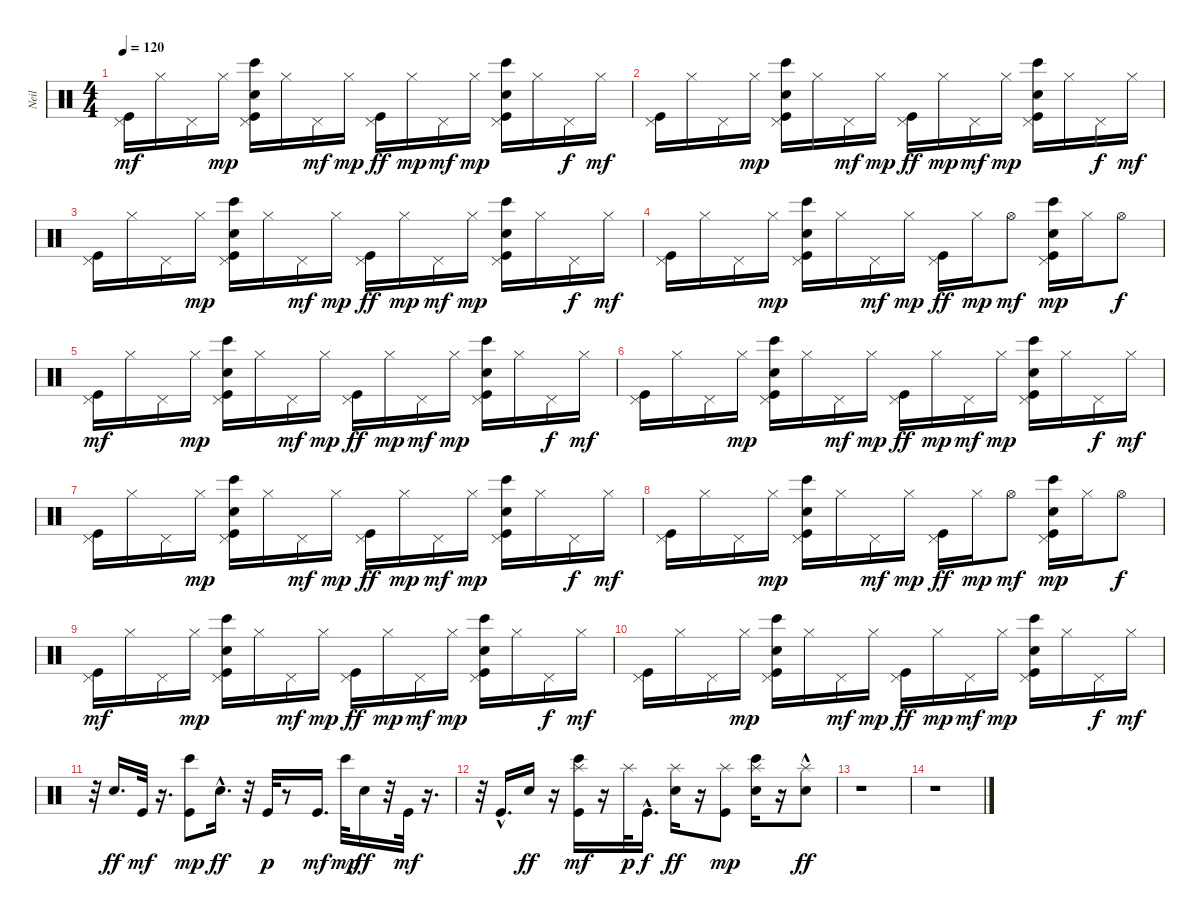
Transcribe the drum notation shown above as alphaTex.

\track ("Neil" "Neil") {instrument percussion}
\staff {score}
\articulation defaults
\ts (4 4)
\tempo 120
\clef neutral
\ks c
("Pedal Hi-Hat (hit)" "Kick (hit)").16{dy mf} "Hi-Hat (closed)".16 "Pedal Hi-Hat (hit)".16 "Hi-Hat (closed)".16{dy mp} ("Electric Snare (hit)" "Pedal Hi-Hat (hit)" "Kick (hit)" "Bongo High (hit)").16 "Hi-Hat (closed)".16 "Pedal Hi-Hat (hit)".16{dy mf} "Hi-Hat (closed)".16{dy mp} ("Pedal Hi-Hat (hit)" "Kick (hit)").16{dy ff} "Hi-Hat (closed)".16{dy mp} "Pedal Hi-Hat (hit)".16{dy mf} "Hi-Hat (closed)".16{dy mp} ("Electric Snare (hit)" "Pedal Hi-Hat (hit)" "Kick (hit)" "Bongo High (hit)").16 "Hi-Hat (closed)".16 "Pedal Hi-Hat (hit)".16{dy f} "Hi-Hat (closed)".16{dy mf} |
("Pedal Hi-Hat (hit)" "Kick (hit)").16 "Hi-Hat (closed)".16 "Pedal Hi-Hat (hit)".16 "Hi-Hat (closed)".16{dy mp} ("Electric Snare (hit)" "Pedal Hi-Hat (hit)" "Kick (hit)" "Bongo High (hit)").16{volume 11} "Hi-Hat (closed)".16 "Pedal Hi-Hat (hit)".16{dy mf} "Hi-Hat (closed)".16{dy mp} ("Pedal Hi-Hat (hit)" "Kick (hit)").16{dy ff volume 10} "Hi-Hat (closed)".16{dy mp} "Pedal Hi-Hat (hit)".16{dy mf} "Hi-Hat (closed)".16{dy mp volume 10} ("Electric Snare (hit)" "Pedal Hi-Hat (hit)" "Kick (hit)" "Bongo High (hit)").16 "Hi-Hat (closed)".16 "Pedal Hi-Hat (hit)".16{dy f volume 10} "Hi-Hat (closed)".16{dy mf} |
("Pedal Hi-Hat (hit)" "Kick (hit)").16 "Hi-Hat (closed)".16 "Pedal Hi-Hat (hit)".16{volume 10} "Hi-Hat (closed)".16{dy mp} ("Electric Snare (hit)" "Pedal Hi-Hat (hit)" "Kick (hit)" "Bongo High (hit)").16 "Hi-Hat (closed)".16 "Pedal Hi-Hat (hit)".16{dy mf} "Hi-Hat (closed)".16{dy mp} ("Pedal Hi-Hat (hit)" "Kick (hit)").16{dy ff} "Hi-Hat (closed)".16{dy mp} "Pedal Hi-Hat (hit)".16{dy mf} "Hi-Hat (closed)".16{dy mp} ("Electric Snare (hit)" "Pedal Hi-Hat (hit)" "Kick (hit)" "Bongo High (hit)").16{volume 10} "Hi-Hat (closed)".16 "Pedal Hi-Hat (hit)".16{dy f} "Hi-Hat (closed)".16{dy mf} |
("Pedal Hi-Hat (hit)" "Kick (hit)").16 "Hi-Hat (closed)".16 "Pedal Hi-Hat (hit)".16 "Hi-Hat (closed)".16{dy mp volume 10} ("Electric Snare (hit)" "Pedal Hi-Hat (hit)" "Kick (hit)" "Bongo High (hit)").16 "Hi-Hat (closed)".16{volume 10} "Pedal Hi-Hat (hit)".16{dy mf} "Hi-Hat (closed)".16{dy mp} ("Pedal Hi-Hat (hit)" "Kick (hit)").16{dy ff} "Hi-Hat (closed)".16{dy mp volume 10} "Hi-Hat (open)".8{dy mf} ("Electric Snare (hit)" "Pedal Hi-Hat (hit)" "Kick (hit)" "Bongo High (hit)").16{dy mp volume 10} "Hi-Hat (closed)".16 "Hi-Hat (open)".8{dy f} |
("Pedal Hi-Hat (hit)" "Kick (hit)").16{dy mf} "Hi-Hat (closed)".16{volume 9} "Pedal Hi-Hat (hit)".16{volume 9} "Hi-Hat (closed)".16{dy mp volume 9} ("Electric Snare (hit)" "Pedal Hi-Hat (hit)" "Kick (hit)" "Bongo High (hit)").16{volume 9} "Hi-Hat (closed)".16{volume 9} "Pedal Hi-Hat (hit)".16{dy mf volume 9} "Hi-Hat (closed)".16{dy mp} ("Pedal Hi-Hat (hit)" "Kick (hit)").16{dy ff volume 9} "Hi-Hat (closed)".16{dy mp volume 8} "Pedal Hi-Hat (hit)".16{dy mf volume 8} "Hi-Hat (closed)".16{dy mp volume 8} ("Electric Snare (hit)" "Pedal Hi-Hat (hit)" "Kick (hit)" "Bongo High (hit)").16 "Hi-Hat (closed)".16 "Pedal Hi-Hat (hit)".16{dy f volume 8} "Hi-Hat (closed)".16{dy mf volume 8} |
("Pedal Hi-Hat (hit)" "Kick (hit)").16{volume 8} "Hi-Hat (closed)".16{volume 8} "Pedal Hi-Hat (hit)".16 "Hi-Hat (closed)".16{dy mp volume 8} ("Electric Snare (hit)" "Pedal Hi-Hat (hit)" "Kick (hit)" "Bongo High (hit)").16{volume 8} "Hi-Hat (closed)".16 "Pedal Hi-Hat (hit)".16{dy mf volume 7} "Hi-Hat (closed)".16{dy mp volume 7} ("Pedal Hi-Hat (hit)" "Kick (hit)").16{dy ff volume 7} "Hi-Hat (closed)".16{dy mp} "Pedal Hi-Hat (hit)".16{dy mf} "Hi-Hat (closed)".16{dy mp volume 7} ("Electric Snare (hit)" "Pedal Hi-Hat (hit)" "Kick (hit)" "Bongo High (hit)").16{volume 7} "Hi-Hat (closed)".16{volume 7} "Pedal Hi-Hat (hit)".16{dy f} "Hi-Hat (closed)".16{dy mf volume 6} |
("Pedal Hi-Hat (hit)" "Kick (hit)").16 "Hi-Hat (closed)".16 "Pedal Hi-Hat (hit)".16{volume 6} "Hi-Hat (closed)".16{dy mp} ("Electric Snare (hit)" "Pedal Hi-Hat (hit)" "Kick (hit)" "Bongo High (hit)").16{volume 6} "Hi-Hat (closed)".16{volume 6} "Pedal Hi-Hat (hit)".16{dy mf volume 6} "Hi-Hat (closed)".16{dy mp volume 6} ("Pedal Hi-Hat (hit)" "Kick (hit)").16{dy ff} "Hi-Hat (closed)".16{dy mp volume 6} "Pedal Hi-Hat (hit)".16{dy mf} "Hi-Hat (closed)".16{dy mp volume 6} ("Electric Snare (hit)" "Pedal Hi-Hat (hit)" "Kick (hit)" "Bongo High (hit)").16 "Hi-Hat (closed)".16{volume 5} "Pedal Hi-Hat (hit)".16{dy f volume 5} "Hi-Hat (closed)".16{dy mf volume 5} |
("Pedal Hi-Hat (hit)" "Kick (hit)").16{volume 5} "Hi-Hat (closed)".16{volume 5} "Pedal Hi-Hat (hit)".16{volume 5} "Hi-Hat (closed)".16{dy mp} ("Electric Snare (hit)" "Pedal Hi-Hat (hit)" "Kick (hit)" "Bongo High (hit)").16{volume 4} "Hi-Hat (closed)".16 "Pedal Hi-Hat (hit)".16{dy mf volume 4} "Hi-Hat (closed)".16{dy mp volume 4} ("Pedal Hi-Hat (hit)" "Kick (hit)").16{dy ff volume 4} "Hi-Hat (closed)".16{dy mp volume 4} "Hi-Hat (open)".8{dy mf volume 4} ("Electric Snare (hit)" "Pedal Hi-Hat (hit)" "Kick (hit)" "Bongo High (hit)").16{dy mp volume 4} "Hi-Hat (closed)".16 "Hi-Hat (open)".8{dy f volume 3} |
("Pedal Hi-Hat (hit)" "Kick (hit)").16{dy mf volume 3} "Hi-Hat (closed)".16{volume 3} "Pedal Hi-Hat (hit)".16{volume 3} "Hi-Hat (closed)".16{dy mp volume 3} ("Electric Snare (hit)" "Pedal Hi-Hat (hit)" "Kick (hit)" "Bongo High (hit)").16{volume 3} "Hi-Hat (closed)".16 "Pedal Hi-Hat (hit)".16{dy mf volume 2} "Hi-Hat (closed)".16{dy mp volume 2} ("Pedal Hi-Hat (hit)" "Kick (hit)").16{dy ff volume 2} "Hi-Hat (closed)".16{dy mp} "Pedal Hi-Hat (hit)".16{dy mf volume 2} "Hi-Hat (closed)".16{dy mp} ("Electric Snare (hit)" "Pedal Hi-Hat (hit)" "Kick (hit)" "Bongo High (hit)").16{volume 2} "Hi-Hat (closed)".16 "Pedal Hi-Hat (hit)".16{dy f volume 2} "Hi-Hat (closed)".16{dy mf volume 2} |
("Pedal Hi-Hat (hit)" "Kick (hit)").16 "Hi-Hat (closed)".16{volume 1} "Pedal Hi-Hat (hit)".16 "Hi-Hat (closed)".16{dy mp volume 1} ("Electric Snare (hit)" "Pedal Hi-Hat (hit)" "Kick (hit)" "Bongo High (hit)").16{volume 1} "Hi-Hat (closed)".16 "Pedal Hi-Hat (hit)".16{dy mf} "Hi-Hat (closed)".16{dy mp volume 1} ("Pedal Hi-Hat (hit)" "Kick (hit)").16{dy ff} "Hi-Hat (closed)".16{dy mp volume 1} "Pedal Hi-Hat (hit)".16{dy mf volume 1} "Hi-Hat (closed)".16{dy mp} ("Electric Snare (hit)" "Pedal Hi-Hat (hit)" "Kick (hit)" "Bongo High (hit)").16 "Hi-Hat (closed)".16{volume 0} "Pedal Hi-Hat (hit)".16{dy f volume 0} "Hi-Hat (closed)".16{dy mf volume 0} |
r.32 "Electric Snare (hit)".16{d dy ff volume 0} "Kick (hit)".32{dy mf} r.16{d} ("Kick (hit)" "Bongo High (hit)").8{dy mp} "Electric Snare (hit)"{hac}.16{d dy ff} r.32 "Kick (hit)".32{dy p} r.8 "Kick (hit)".16{d dy mf} "Bongo High (hit)".32{dy mp} "Electric Snare (hit)".16{dy ff} r.32 "Kick (hit)".32{dy mf} r.16{d} |
r.32 "Kick (hit)"{hac}.16{d} "Electric Snare (hit)".16{dy ff} r.16 ("Splash (hit)" "Bongo High (hit)" "Kick (hit)").16{dy mf} r.16 "Splash (hit)".32{dy p} "Kick (hit)"{hac}.16{d dy f} ("Splash (hit)" "Electric Snare (hit)").16{dy ff} r.16 ("Kick (hit)" "Splash (hit)").8{dy mp} ("Splash (hit)" "Electric Snare (hit)" "Bongo High (hit)").16 r.16 ("Splash (hit)" "Electric Snare (hit)"{hac}).8{dy ff} |
r.1 |
r.1
